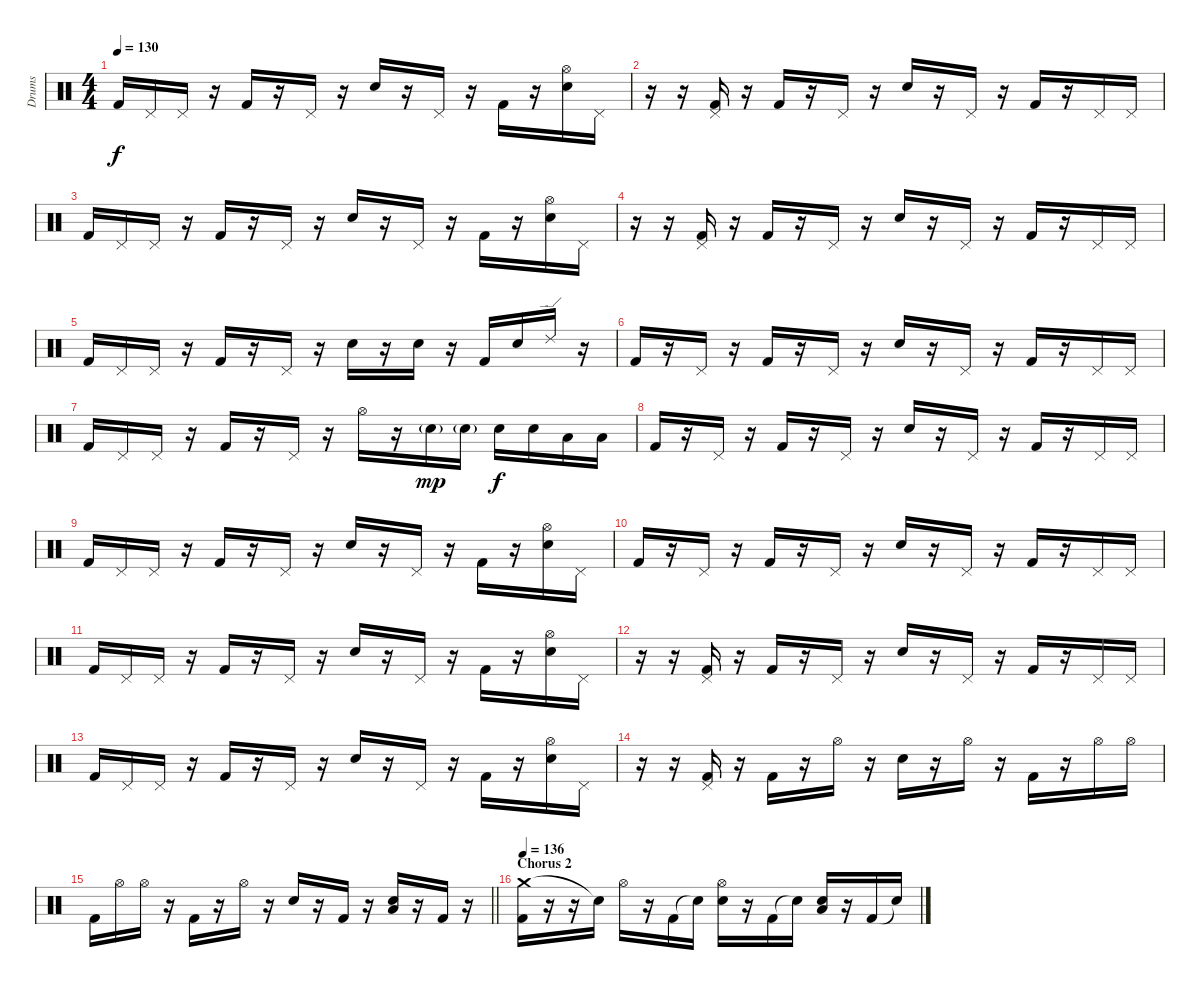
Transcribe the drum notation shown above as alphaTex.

\track ("Drums" "Drums") {instrument percussion}
\staff {score}
\articulation defaults
\ts (4 4)
\tempo 130
\clef neutral
\ks c "Kick (hit) 2".16{dy f} "Pedal Hi-Hat (hit)".16 "Pedal Hi-Hat (hit)".16
r.16 "Kick (hit) 2".16 r.16 "Pedal Hi-Hat (hit)".16 r.16 "Electric Snare (hit)".16 r.16 "Pedal Hi-Hat (hit)".16 r.16 "Kick (hit) 2".16 r.16 ("Hi-Hat (open)" "Electric Snare (hit)").16 "Pedal Hi-Hat (hit)".16 |
r.16 r.16 ("Pedal Hi-Hat (hit)" "Kick (hit) 2").16 r.16 "Kick (hit) 2".16 r.16 "Pedal Hi-Hat (hit)".16 r.16 "Electric Snare (hit)".16 r.16 "Pedal Hi-Hat (hit)".16 r.16 "Kick (hit) 2".16 r.16 "Pedal Hi-Hat (hit)".16 "Pedal Hi-Hat (hit)".16 |
"Kick (hit) 2".16 "Pedal Hi-Hat (hit)".16 "Pedal Hi-Hat (hit)".16 r.16 "Kick (hit) 2".16 r.16 "Pedal Hi-Hat (hit)".16 r.16 "Electric Snare (hit)".16 r.16 "Pedal Hi-Hat (hit)".16 r.16 "Kick (hit) 2".16 r.16 ("Hi-Hat (open)" "Electric Snare (hit)").16 "Pedal Hi-Hat (hit)".16 |
r.16 r.16 ("Pedal Hi-Hat (hit)" "Kick (hit) 2").16 r.16 "Kick (hit) 2".16 r.16 "Pedal Hi-Hat (hit)".16 r.16 "Electric Snare (hit)".16 r.16 "Pedal Hi-Hat (hit)".16 r.16 "Kick (hit) 2".16 r.16 "Pedal Hi-Hat (hit)".16 "Pedal Hi-Hat (hit)".16 |
"Kick (hit) 2".16 "Pedal Hi-Hat (hit)".16 "Pedal Hi-Hat (hit)".16 r.16 "Kick (hit) 2".16 r.16 "Pedal Hi-Hat (hit)".16 r.16 "Electric Snare (hit)".16 r.16 "Electric Snare (hit)".16 r.16 "Kick (hit) 2".16 "Electric Snare (hit)".16 "Ride (edge) 2".16 r.16 |
"Kick (hit) 2".16 r.16 "Pedal Hi-Hat (hit)".16 r.16 "Kick (hit) 2".16 r.16 "Pedal Hi-Hat (hit)".16 r.16 "Electric Snare (hit)".16 r.16 "Pedal Hi-Hat (hit)".16 r.16 "Kick (hit) 2".16 r.16 "Pedal Hi-Hat (hit)".16 "Pedal Hi-Hat (hit)".16 |
"Kick (hit) 2".16 "Pedal Hi-Hat (hit)".16 "Pedal Hi-Hat (hit)".16 r.16 "Kick (hit) 2".16 r.16 "Pedal Hi-Hat (hit)".16 r.16 "Hi-Hat (open)".16 r.16 "Electric Snare (hit)"{g}.16{dy mp} "Electric Snare (hit)"{g}.16 "Electric Snare (hit)".16{dy f} "Electric Snare (hit)".16 "Low Tom (hit)".16 "Low Tom (hit)".16 |
"Kick (hit) 2".16 r.16 "Pedal Hi-Hat (hit)".16 r.16 "Kick (hit) 2".16 r.16 "Pedal Hi-Hat (hit)".16 r.16 "Electric Snare (hit)".16 r.16 "Pedal Hi-Hat (hit)".16 r.16 "Kick (hit) 2".16 r.16 "Pedal Hi-Hat (hit)".16 "Pedal Hi-Hat (hit)".16 |
"Kick (hit) 2".16 "Pedal Hi-Hat (hit)".16 "Pedal Hi-Hat (hit)".16 r.16 "Kick (hit) 2".16 r.16 "Pedal Hi-Hat (hit)".16 r.16 "Electric Snare (hit)".16 r.16 "Pedal Hi-Hat (hit)".16 r.16 "Kick (hit) 2".16 r.16 ("Hi-Hat (open)" "Electric Snare (hit)").16 "Pedal Hi-Hat (hit)".16 |
"Kick (hit) 2".16 r.16 "Pedal Hi-Hat (hit)".16 r.16 "Kick (hit) 2".16 r.16 "Pedal Hi-Hat (hit)".16 r.16 "Electric Snare (hit)".16 r.16 "Pedal Hi-Hat (hit)".16 r.16 "Kick (hit) 2".16 r.16 "Pedal Hi-Hat (hit)".16 "Pedal Hi-Hat (hit)".16 |
"Kick (hit) 2".16 "Pedal Hi-Hat (hit)".16 "Pedal Hi-Hat (hit)".16 r.16 "Kick (hit) 2".16 r.16 "Pedal Hi-Hat (hit)".16 r.16 "Electric Snare (hit)".16 r.16 "Pedal Hi-Hat (hit)".16 r.16 "Kick (hit) 2".16 r.16 ("Hi-Hat (open)" "Electric Snare (hit)").16 "Pedal Hi-Hat (hit)".16 |
r.16 r.16 ("Pedal Hi-Hat (hit)" "Kick (hit) 2").16 r.16 "Kick (hit) 2".16 r.16 "Pedal Hi-Hat (hit)".16 r.16 "Electric Snare (hit)".16 r.16 "Pedal Hi-Hat (hit)".16 r.16 "Kick (hit) 2".16 r.16 "Pedal Hi-Hat (hit)".16 "Pedal Hi-Hat (hit)".16 |
"Kick (hit) 2".16 "Pedal Hi-Hat (hit)".16 "Pedal Hi-Hat (hit)".16 r.16 "Kick (hit) 2".16 r.16 "Pedal Hi-Hat (hit)".16 r.16 "Electric Snare (hit)".16 r.16 "Pedal Hi-Hat (hit)".16 r.16 "Kick (hit) 2".16 r.16 ("Hi-Hat (open)" "Electric Snare (hit)").16 "Pedal Hi-Hat (hit)".16 |
r.16 r.16 ("Pedal Hi-Hat (hit)" "Kick (hit) 2").16 r.16 "Kick (hit) 2".16 r.16 "Hi-Hat (open)".16 r.16 "Electric Snare (hit)".16 r.16 "Hi-Hat (open)".16 r.16 "Kick (hit) 2".16 r.16 "Hi-Hat (open)".16 "Hi-Hat (open)".16 |
\barLineRight lightlight "Kick (hit) 2".16 "Hi-Hat (open)".16 "Hi-Hat (open)".16
r.16 "Kick (hit) 2".16 r.16 "Hi-Hat (open)".16 r.16 "Electric Snare (hit)".16 r.16 "Kick (hit) 2".16 r.16 ("Low Floor Tom (hit)" "Electric Snare (hit)").16 r.16 "Kick (hit) 2".16 r.16 |
\section ("" "Chorus 2")
\tempo 136
("Crash medium (hit)" "Kick (hit) 2").16 r.16 r.16 "Snare (hit)"{t}.16 "Hi-Hat (open)".16 r.16 "Kick (hit) 2".16 "Snare (hit)"{t}.16 ("Hi-Hat (open)" "Electric Snare (hit)").16 r.16 "Kick (hit) 2".16 "Snare (hit)"{t}.16 ("Low Floor Tom (hit)" "Electric Snare (hit)").16 r.16 "Kick (hit) 2".16 "Snare (hit)"{t}.16
